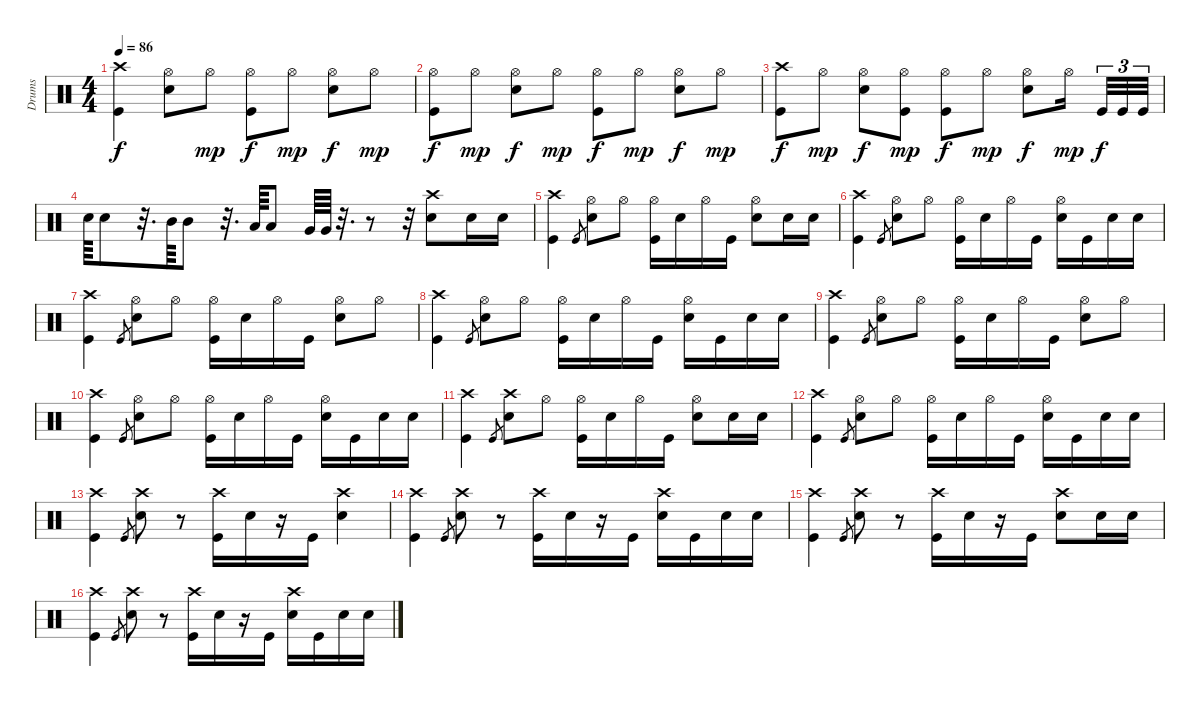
\track ("Drums" "Drums") {instrument percussion}
\staff {score}
\articulation defaults
\ts (4 4)
\tempo 86
\clef neutral
\ks c
("Crash high (hit)" "Kick (hit)").4{dy f} ("Hi-Hat (open)" "Snare (hit) 2").8 "Hi-Hat (open)".8{dy mp} ("Hi-Hat (open)" "Kick (hit)").8{dy f} "Hi-Hat (open)".8{dy mp} ("Hi-Hat (open)" "Snare (hit) 2").8{dy f} "Hi-Hat (open)".8{dy mp} |
("Hi-Hat (open)" "Kick (hit)").8{dy f} "Hi-Hat (open)".8{dy mp} ("Hi-Hat (open)" "Snare (hit) 2").8{dy f} "Hi-Hat (open)".8{dy mp} ("Hi-Hat (open)" "Kick (hit)").8{dy f} "Hi-Hat (open)".8{dy mp} ("Hi-Hat (open)" "Snare (hit) 2").8{dy f} "Hi-Hat (open)".8{dy mp} |
("Crash high (hit)" "Kick (hit)").8{dy f} "Hi-Hat (open)".8{dy mp} ("Hi-Hat (open)" "Snare (hit) 2").8{dy f} ("Hi-Hat (open)" "Kick (hit)").8{dy mp} ("Hi-Hat (open)" "Kick (hit)").8{dy f} "Hi-Hat (open)".8{dy mp} ("Hi-Hat (open)" "Snare (hit) 2").8{dy f} "Hi-Hat (open)".16{dy mp} "Kick (hit)".32{tu (3 2) dy f} "Kick (hit)".32{tu (3 2)} "Kick (hit)".32{tu (3 2)} |
"Snare (hit) 2".64 "Snare (hit) 2".8 r.32{d} "Mid Tom (hit)".64 "Mid Tom (hit)".8 r.32{d} "Low Tom (hit)".64 "Low Tom (hit)".8 "Very Low Tom (hit)".64 "Very Low Tom (hit)".64 r.32{d} r.8 r.32 ("Crash high (hit)" "Snare (hit) 2").8 "Snare (hit) 2".16 "Snare (hit) 2".16 |
("Crash high (hit)" "Kick (hit)").4 "Kick (hit)".8{gr} ("Hi-Hat (open)" "Snare (hit) 2").8 "Hi-Hat (open)".8 ("Hi-Hat (open)" "Kick (hit)").16 "Snare (hit) 2".16 "Hi-Hat (open)".16 "Kick (hit)".16 ("Hi-Hat (open)" "Snare (hit) 2").8 "Snare (hit) 2".16 "Snare (hit) 2".16 |
("Crash high (hit)" "Kick (hit)").4 "Kick (hit)".8{gr} ("Hi-Hat (open)" "Snare (hit) 2").8 "Hi-Hat (open)".8 ("Hi-Hat (open)" "Kick (hit)").16 "Snare (hit) 2".16 "Hi-Hat (open)".16 "Kick (hit)".16 ("Hi-Hat (open)" "Snare (hit) 2").16 "Kick (hit)".16 "Snare (hit) 2".16 "Snare (hit) 2".16 |
("Crash high (hit)" "Kick (hit)").4 "Kick (hit)".8{gr} ("Hi-Hat (open)" "Snare (hit) 2").8 "Hi-Hat (open)".8 ("Hi-Hat (open)" "Kick (hit)").16 "Snare (hit) 2".16 "Hi-Hat (open)".16 "Kick (hit)".16 ("Hi-Hat (open)" "Snare (hit) 2").8 "Hi-Hat (open)".8 |
("Crash high (hit)" "Kick (hit)").4 "Kick (hit)".8{gr} ("Hi-Hat (open)" "Snare (hit) 2").8 "Hi-Hat (open)".8 ("Hi-Hat (open)" "Kick (hit)").16 "Snare (hit) 2".16 "Hi-Hat (open)".16 "Kick (hit)".16 ("Hi-Hat (open)" "Snare (hit) 2").16 "Kick (hit)".16 "Snare (hit) 2".16 "Snare (hit) 2".16 |
("Crash high (hit)" "Kick (hit)").4 "Kick (hit)".8{gr} ("Hi-Hat (open)" "Snare (hit) 2").8 "Hi-Hat (open)".8 ("Hi-Hat (open)" "Kick (hit)").16 "Snare (hit) 2".16 "Hi-Hat (open)".16 "Kick (hit)".16 ("Hi-Hat (open)" "Snare (hit) 2").8 "Hi-Hat (open)".8 |
("Crash high (hit)" "Kick (hit)").4 "Kick (hit)".8{gr} ("Hi-Hat (open)" "Snare (hit) 2").8 "Hi-Hat (open)".8 ("Hi-Hat (open)" "Kick (hit)").16 "Snare (hit) 2".16 "Hi-Hat (open)".16 "Kick (hit)".16 ("Hi-Hat (open)" "Snare (hit) 2").16 "Kick (hit)".16 "Snare (hit) 2".16 "Snare (hit) 2".16 |
("Crash high (hit)" "Kick (hit)").4 "Kick (hit)".8{gr} ("Crash high (hit)" "Snare (hit) 2").8 "Hi-Hat (open)".8 ("Hi-Hat (open)" "Kick (hit)").16 "Snare (hit) 2".16 "Hi-Hat (open)".16 "Kick (hit)".16 ("Hi-Hat (open)" "Snare (hit) 2").8 "Snare (hit) 2".16 "Snare (hit) 2".16 |
("Crash high (hit)" "Kick (hit)").4 "Kick (hit)".8{gr} ("Hi-Hat (open)" "Snare (hit) 2").8 "Hi-Hat (open)".8 ("Hi-Hat (open)" "Kick (hit)").16 "Snare (hit) 2".16 "Hi-Hat (open)".16 "Kick (hit)".16 ("Hi-Hat (open)" "Snare (hit) 2").16 "Kick (hit)".16 "Snare (hit) 2".16 "Snare (hit) 2".16 |
("Crash high (hit)" "Kick (hit)").4 "Kick (hit)".8{gr} ("Crash high (hit)" "Snare (hit) 2").8 r.8 ("Crash high (hit)" "Kick (hit)").16 "Snare (hit) 2".16 r.16 "Kick (hit)".16 ("Crash high (hit)" "Snare (hit) 2").4 |
("Crash high (hit)" "Kick (hit)").4 "Kick (hit)".8{gr} ("Crash high (hit)" "Snare (hit) 2").8 r.8 ("Crash high (hit)" "Kick (hit)").16 "Snare (hit) 2".16 r.16 "Kick (hit)".16 ("Crash high (hit)" "Snare (hit) 2").16 "Kick (hit)".16 "Snare (hit) 2".16 "Snare (hit) 2".16 |
("Crash high (hit)" "Kick (hit)").4 "Kick (hit)".8{gr} ("Crash high (hit)" "Snare (hit) 2").8 r.8 ("Crash high (hit)" "Kick (hit)").16 "Snare (hit) 2".16 r.16 "Kick (hit)".16 ("Crash high (hit)" "Snare (hit) 2").8 "Snare (hit) 2".16 "Snare (hit) 2".16 |
("Crash high (hit)" "Kick (hit)").4 "Kick (hit)".8{gr} ("Crash high (hit)" "Snare (hit) 2").8 r.8 ("Crash high (hit)" "Kick (hit)").16 "Snare (hit) 2".16 r.16 "Kick (hit)".16 ("Crash high (hit)" "Snare (hit) 2").16 "Kick (hit)".16 "Snare (hit) 2".16 "Snare (hit) 2".16
